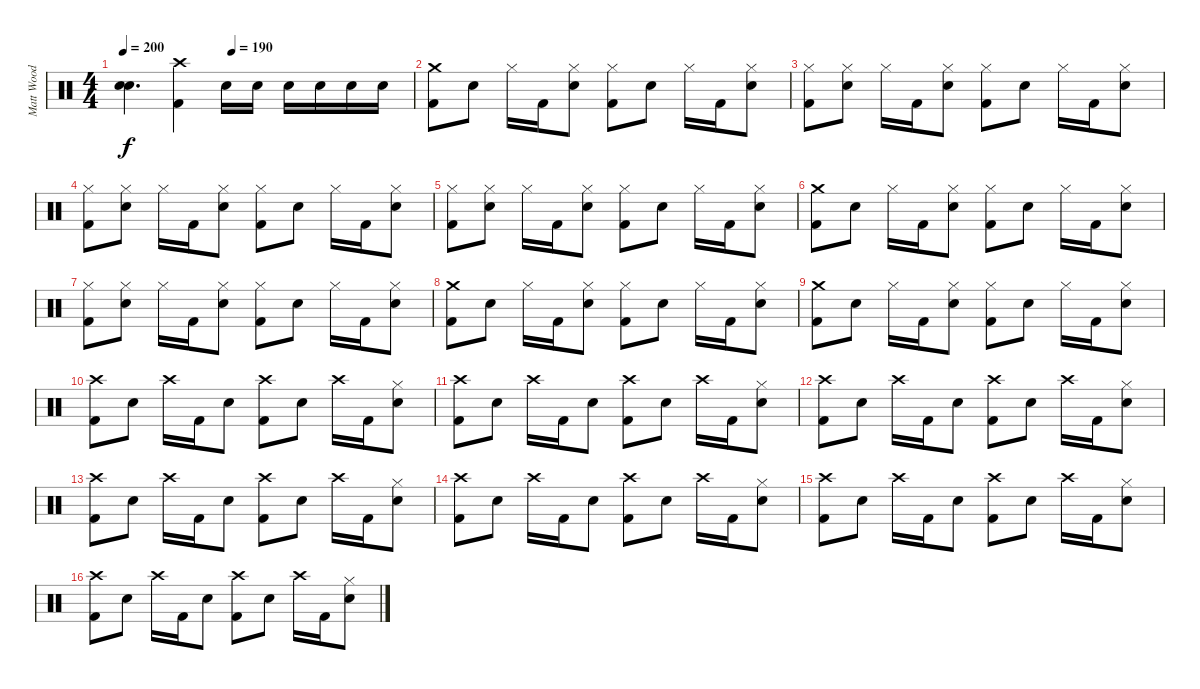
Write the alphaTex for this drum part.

\track ("Matt Wood" "Matt Wood") {instrument percussion}
\staff {score}
\articulation defaults
\ts (4 4)
\tempo 200
\tempo (190 0.375)
\clef neutral
\ks c
("Snare (hit)"{t} "Snare (hit)"{t}).4{d dy f} ("Crash high (hit)" "Kick (hit) 2").4 "Snare (hit) 2".16 "Snare (hit) 2".16 "Snare (hit) 2".16 "Snare (hit) 2".16 "Snare (hit) 2".16 "Snare (hit) 2".16 |
("Crash medium (hit)" "Kick (hit) 2").8 "Snare (hit) 2".8 "Hi-Hat (closed)".16 "Kick (hit) 2".16 ("Hi-Hat (closed)" "Snare (hit) 2").8 ("Hi-Hat (closed)" "Kick (hit) 2").8 "Snare (hit) 2".8 "Hi-Hat (closed)".16 "Kick (hit) 2".16 ("Hi-Hat (closed)" "Snare (hit) 2").8 |
("Hi-Hat (closed)" "Kick (hit) 2").8 ("Hi-Hat (closed)" "Snare (hit) 2").8 "Hi-Hat (closed)".16 "Kick (hit) 2".16 ("Hi-Hat (closed)" "Snare (hit) 2").8 ("Hi-Hat (closed)" "Kick (hit) 2").8 "Snare (hit) 2".8 "Hi-Hat (closed)".16 "Kick (hit) 2".16 ("Hi-Hat (closed)" "Snare (hit) 2").8 |
("Hi-Hat (closed)" "Kick (hit) 2").8 ("Hi-Hat (closed)" "Snare (hit) 2").8 "Hi-Hat (closed)".16 "Kick (hit) 2".16 ("Hi-Hat (closed)" "Snare (hit) 2").8 ("Hi-Hat (closed)" "Kick (hit) 2").8 "Snare (hit) 2".8 "Hi-Hat (closed)".16 "Kick (hit) 2".16 ("Hi-Hat (closed)" "Snare (hit) 2").8 |
("Hi-Hat (closed)" "Kick (hit) 2").8 ("Hi-Hat (closed)" "Snare (hit) 2").8 "Hi-Hat (closed)".16 "Kick (hit) 2".16 ("Hi-Hat (closed)" "Snare (hit) 2").8 ("Hi-Hat (closed)" "Kick (hit) 2").8 "Snare (hit) 2".8 "Hi-Hat (closed)".16 "Kick (hit) 2".16 ("Hi-Hat (closed)" "Snare (hit) 2").8 |
("Crash medium (hit)" "Kick (hit) 2").8 "Snare (hit) 2".8 "Hi-Hat (closed)".16 "Kick (hit) 2".16 ("Hi-Hat (closed)" "Snare (hit) 2").8 ("Hi-Hat (closed)" "Kick (hit) 2").8 "Snare (hit) 2".8 "Hi-Hat (closed)".16 "Kick (hit) 2".16 ("Hi-Hat (closed)" "Snare (hit) 2").8 |
("Hi-Hat (closed)" "Kick (hit) 2").8 ("Hi-Hat (closed)" "Snare (hit) 2").8 "Hi-Hat (closed)".16 "Kick (hit) 2".16 ("Hi-Hat (closed)" "Snare (hit) 2").8 ("Hi-Hat (closed)" "Kick (hit) 2").8 "Snare (hit) 2".8 "Hi-Hat (closed)".16 "Kick (hit) 2".16 ("Hi-Hat (closed)" "Snare (hit) 2").8 |
("Crash medium (hit)" "Kick (hit) 2").8 "Snare (hit) 2".8 "Hi-Hat (closed)".16 "Kick (hit) 2".16 ("Hi-Hat (closed)" "Snare (hit) 2").8 ("Hi-Hat (closed)" "Kick (hit) 2").8 "Snare (hit) 2".8 "Hi-Hat (closed)".16 "Kick (hit) 2".16 ("Hi-Hat (closed)" "Snare (hit) 2").8 |
("Crash medium (hit)" "Kick (hit) 2").8 "Snare (hit) 2".8 "Hi-Hat (closed)".16 "Kick (hit) 2".16 ("Hi-Hat (closed)" "Snare (hit) 2").8 ("Hi-Hat (closed)" "Kick (hit) 2").8 "Snare (hit) 2".8 "Hi-Hat (closed)".16 "Kick (hit) 2".16 ("Hi-Hat (closed)" "Snare (hit) 2").8 |
("Crash high (hit)" "Kick (hit) 2").8 "Snare (hit) 2".8 "Crash high (hit)".16 "Kick (hit) 2".16 "Snare (hit) 2".8 ("Crash high (hit)" "Kick (hit) 2").8 "Snare (hit) 2".8 "Crash high (hit)".16 "Kick (hit) 2".16 ("Hi-Hat (closed)" "Snare (hit) 2").8 |
("Crash high (hit)" "Kick (hit) 2").8 "Snare (hit) 2".8 "Crash high (hit)".16 "Kick (hit) 2".16 "Snare (hit) 2".8 ("Crash high (hit)" "Kick (hit) 2").8 "Snare (hit) 2".8 "Crash high (hit)".16 "Kick (hit) 2".16 ("Hi-Hat (closed)" "Snare (hit) 2").8 |
("Crash high (hit)" "Kick (hit) 2").8 "Snare (hit) 2".8 "Crash high (hit)".16 "Kick (hit) 2".16 "Snare (hit) 2".8 ("Crash high (hit)" "Kick (hit) 2").8 "Snare (hit) 2".8 "Crash high (hit)".16 "Kick (hit) 2".16 ("Hi-Hat (closed)" "Snare (hit) 2").8 |
("Crash high (hit)" "Kick (hit) 2").8 "Snare (hit) 2".8 "Crash high (hit)".16 "Kick (hit) 2".16 "Snare (hit) 2".8 ("Crash high (hit)" "Kick (hit) 2").8 "Snare (hit) 2".8 "Crash high (hit)".16 "Kick (hit) 2".16 ("Hi-Hat (closed)" "Snare (hit) 2").8 |
("Crash high (hit)" "Kick (hit) 2").8 "Snare (hit) 2".8 "Crash high (hit)".16 "Kick (hit) 2".16 "Snare (hit) 2".8 ("Crash high (hit)" "Kick (hit) 2").8 "Snare (hit) 2".8 "Crash high (hit)".16 "Kick (hit) 2".16 ("Hi-Hat (closed)" "Snare (hit) 2").8 |
("Crash high (hit)" "Kick (hit) 2").8 "Snare (hit) 2".8 "Crash high (hit)".16 "Kick (hit) 2".16 "Snare (hit) 2".8 ("Crash high (hit)" "Kick (hit) 2").8 "Snare (hit) 2".8 "Crash high (hit)".16 "Kick (hit) 2".16 ("Hi-Hat (closed)" "Snare (hit) 2").8 |
("Crash high (hit)" "Kick (hit) 2").8 "Snare (hit) 2".8 "Crash high (hit)".16 "Kick (hit) 2".16 "Snare (hit) 2".8 ("Crash high (hit)" "Kick (hit) 2").8 "Snare (hit) 2".8 "Crash high (hit)".16 "Kick (hit) 2".16 ("Hi-Hat (closed)" "Snare (hit) 2").8
